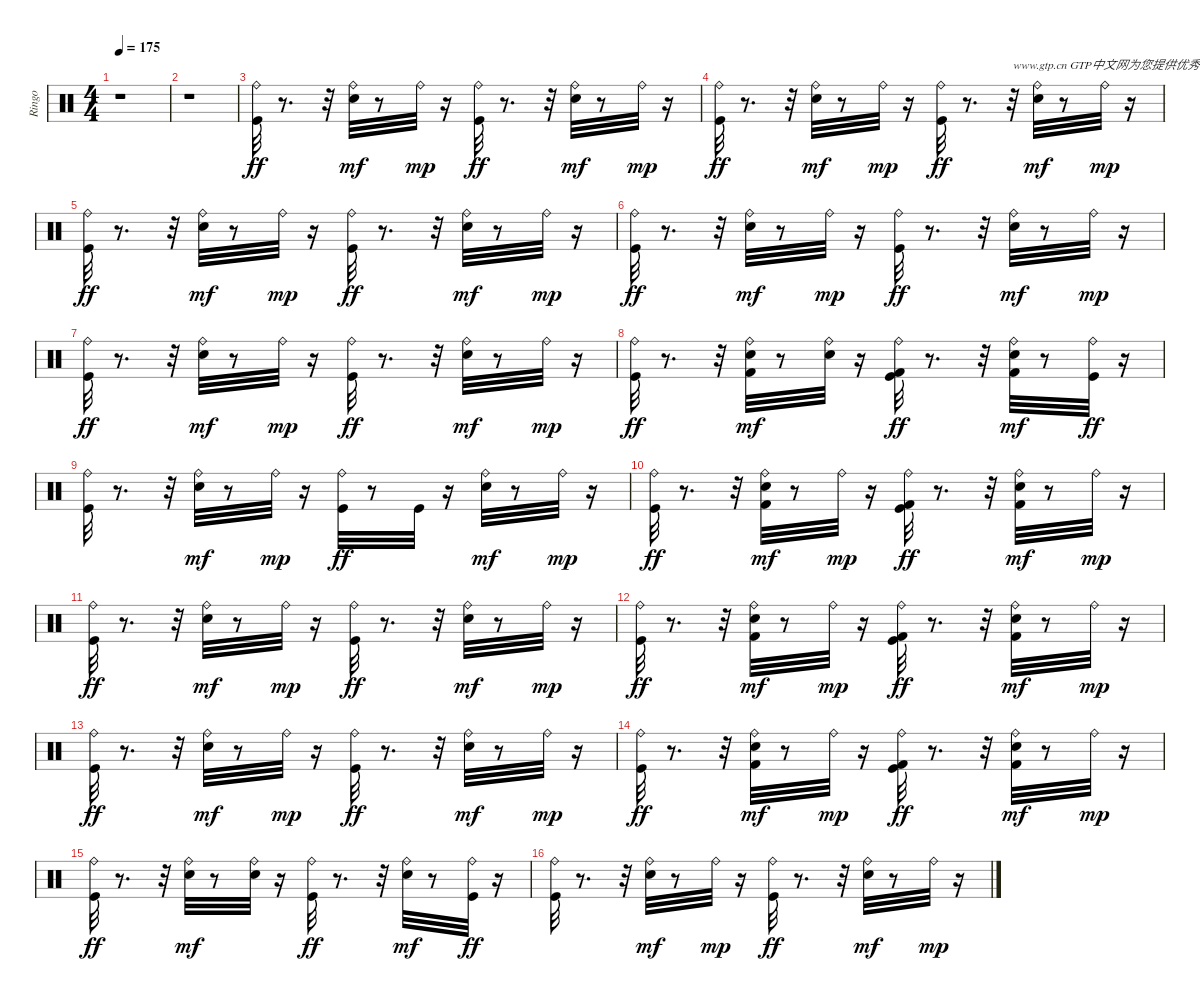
\track ("Ringo" "Ringo") {instrument percussion}
\staff {score}
\articulation defaults
\ts (4 4)
\tempo 175
\clef neutral
\ks c
r.1{dy ff} |
r.1 |
("Ride (bell)" "Kick (hit)").32{volume 13 balance 7} r.8{d} r.32 ("Ride (bell)" "Snare (hit) 2").32{dy mf} r.8 "Ride (bell)".32{dy mp} r.16 ("Ride (bell)" "Kick (hit)").32{dy ff} r.8{d} r.32 ("Ride (bell)" "Snare (hit) 2").32{dy mf} r.8 "Ride (bell)".32{dy mp} r.16 |
("Ride (bell)" "Kick (hit)").32{dy ff} r.8{d} r.32 ("Ride (bell)" "Snare (hit) 2").32{dy mf} r.8 "Ride (bell)".32{dy mp} r.16 ("Ride (bell)" "Kick (hit)").32{dy ff} r.8{d} r.32{txt "www.gtp.cn GTP中文网为您提供优秀的谱子"} ("Ride (bell)" "Snare (hit) 2").32{dy mf} r.8 "Ride (bell)".32{dy mp} r.16 |
("Ride (bell)" "Kick (hit)").32{dy ff} r.8{d} r.32 ("Ride (bell)" "Snare (hit) 2").32{dy mf} r.8 "Ride (bell)".32{dy mp} r.16 ("Ride (bell)" "Kick (hit)").32{dy ff} r.8{d} r.32 ("Ride (bell)" "Snare (hit) 2").32{dy mf} r.8 "Ride (bell)".32{dy mp} r.16 |
("Ride (bell)" "Kick (hit)").32{dy ff} r.8{d} r.32 ("Ride (bell)" "Snare (hit) 2").32{dy mf} r.8 "Ride (bell)".32{dy mp} r.16 ("Ride (bell)" "Kick (hit)").32{dy ff} r.8{d} r.32 ("Ride (bell)" "Snare (hit) 2").32{dy mf} r.8 "Ride (bell)".32{dy mp} r.16 |
("Ride (bell)" "Kick (hit)").32{dy ff} r.8{d} r.32 ("Ride (bell)" "Snare (hit) 2").32{dy mf} r.8 "Ride (bell)".32{dy mp} r.16 ("Ride (bell)" "Kick (hit)").32{dy ff} r.8{d} r.32 ("Ride (bell)" "Snare (hit) 2").32{dy mf} r.8 "Ride (bell)".32{dy mp} r.16 |
("Ride (bell)" "Kick (hit)").32{dy ff} r.8{d} r.32 ("Ride (bell)" "Snare (hit) 2" "Kick (hit) 2").32{dy mf} r.8 ("Ride (bell)" "Snare (hit) 2").32 r.16 ("Ride (bell)" "Kick (hit)" "Kick (hit) 2").32{dy ff} r.8{d} r.32 ("Ride (bell)" "Snare (hit) 2" "Kick (hit) 2").32{dy mf} r.8 ("Ride (bell)" "Kick (hit)").32{dy ff} r.16 |
("Ride (bell)" "Kick (hit)").32 r.8{d} r.32 ("Ride (bell)" "Snare (hit) 2").32{dy mf} r.8 "Ride (bell)".32{dy mp} r.16 ("Ride (bell)" "Kick (hit)").32{dy ff} r.8 "Kick (hit)".32 r.16 ("Ride (bell)" "Snare (hit) 2").32{dy mf} r.8 "Ride (bell)".32{dy mp} r.16 |
("Ride (bell)" "Kick (hit)").32{dy ff} r.8{d} r.32 ("Ride (bell)" "Snare (hit) 2" "Kick (hit) 2").32{dy mf} r.8 "Ride (bell)".32{dy mp} r.16 ("Ride (bell)" "Kick (hit)" "Kick (hit) 2").32{dy ff} r.8{d} r.32 ("Ride (bell)" "Snare (hit) 2" "Kick (hit) 2").32{dy mf} r.8 "Ride (bell)".32{dy mp} r.16 |
("Ride (bell)" "Kick (hit)").32{dy ff} r.8{d} r.32 ("Ride (bell)" "Snare (hit) 2").32{dy mf} r.8 "Ride (bell)".32{dy mp} r.16 ("Ride (bell)" "Kick (hit)").32{dy ff} r.8{d} r.32 ("Ride (bell)" "Snare (hit) 2").32{dy mf} r.8 "Ride (bell)".32{dy mp} r.16 |
("Ride (bell)" "Kick (hit)").32{dy ff} r.8{d} r.32 ("Ride (bell)" "Snare (hit) 2" "Kick (hit) 2").32{dy mf} r.8 "Ride (bell)".32{dy mp} r.16 ("Ride (bell)" "Kick (hit)" "Kick (hit) 2").32{dy ff} r.8{d} r.32 ("Ride (bell)" "Snare (hit) 2" "Kick (hit) 2").32{dy mf} r.8 "Ride (bell)".32{dy mp} r.16 |
("Ride (bell)" "Kick (hit)").32{dy ff} r.8{d} r.32 ("Ride (bell)" "Snare (hit) 2").32{dy mf} r.8 "Ride (bell)".32{dy mp} r.16 ("Ride (bell)" "Kick (hit)").32{dy ff} r.8{d} r.32 ("Ride (bell)" "Snare (hit) 2").32{dy mf} r.8 "Ride (bell)".32{dy mp} r.16 |
("Ride (bell)" "Kick (hit)").32{dy ff} r.8{d} r.32 ("Ride (bell)" "Snare (hit) 2" "Kick (hit) 2").32{dy mf} r.8 "Ride (bell)".32{dy mp} r.16 ("Ride (bell)" "Kick (hit)" "Kick (hit) 2").32{dy ff} r.8{d} r.32 ("Ride (bell)" "Snare (hit) 2" "Kick (hit) 2").32{dy mf} r.8 "Ride (bell)".32{dy mp} r.16 |
("Ride (bell)" "Kick (hit)").32{dy ff} r.8{d} r.32 ("Ride (bell)" "Snare (hit) 2").32{dy mf} r.8 ("Ride (bell)" "Snare (hit) 2").32 r.16 ("Ride (bell)" "Kick (hit)").32{dy ff} r.8{d} r.32 ("Ride (bell)" "Snare (hit) 2").32{dy mf} r.8 ("Ride (bell)" "Kick (hit)").32{dy ff} r.16 |
("Ride (bell)" "Kick (hit)").32 r.8{d} r.32 ("Ride (bell)" "Snare (hit) 2").32{dy mf} r.8 "Ride (bell)".32{dy mp} r.16 ("Ride (bell)" "Kick (hit)").32{dy ff} r.8{d} r.32 ("Ride (bell)" "Snare (hit) 2").32{dy mf} r.8 "Ride (bell)".32{dy mp} r.16
